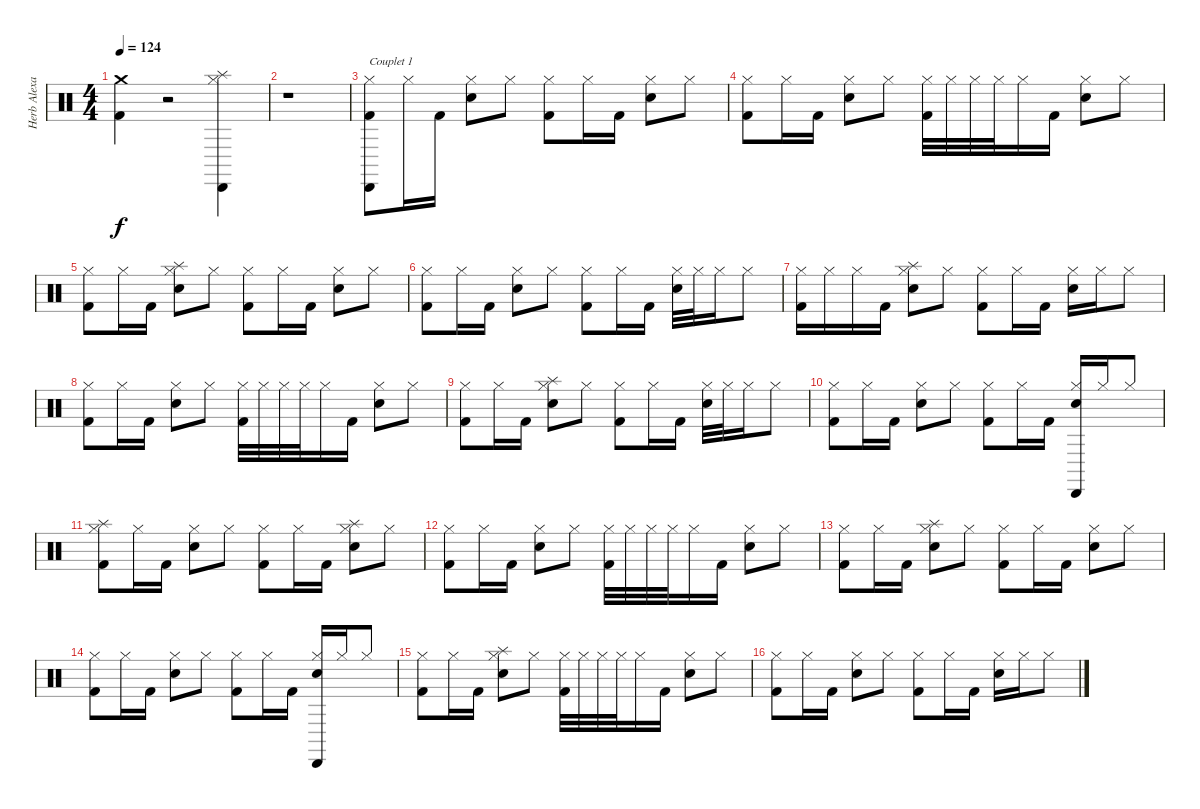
\track ("Herb Alexander" "Herb Alexa") {instrument percussion}
\staff {score}
\articulation defaults
\ts (4 4)
\tempo 124
\clef neutral
\ks c
("Crash medium (hit)" "Kick (hit) 2").4{dy f} r.2 ("Splash (hit)" "Cabasa (hit)" "Hi-Hat (closed)").4 |
r.1 |
("Cabasa (hit)" "Hi-Hat (closed)" "Kick (hit) 2").8{txt "Couplet 1"} "Hi-Hat (closed)".16 "Kick (hit) 2".16 ("Electric Snare (hit)" "Hi-Hat (closed)").8 "Hi-Hat (closed)".8 ("Hi-Hat (closed)" "Kick (hit) 2").8 "Hi-Hat (closed)".16 "Kick (hit) 2".16 ("Electric Snare (hit)" "Hi-Hat (closed)").8 "Hi-Hat (closed)".8 |
("Hi-Hat (closed)" "Kick (hit) 2").8 "Hi-Hat (closed)".16 "Kick (hit) 2".16 ("Electric Snare (hit)" "Hi-Hat (closed)").8 "Hi-Hat (closed)".8 ("Hi-Hat (closed)" "Kick (hit) 2").32 "Hi-Hat (closed)".32 "Hi-Hat (closed)".32 "Hi-Hat (closed)".32 "Hi-Hat (closed)".16 "Kick (hit) 2".16 ("Electric Snare (hit)" "Hi-Hat (closed)").8 "Hi-Hat (closed)".8 |
("Hi-Hat (closed)" "Kick (hit) 2").8 "Hi-Hat (closed)".16 "Kick (hit) 2".16 ("Splash (hit)" "Electric Snare (hit)" "Hi-Hat (closed)").8 "Hi-Hat (closed)".8 ("Hi-Hat (closed)" "Kick (hit) 2").8 "Hi-Hat (closed)".16 "Kick (hit) 2".16 ("Electric Snare (hit)" "Hi-Hat (closed)").8 "Hi-Hat (closed)".8 |
("Hi-Hat (closed)" "Kick (hit) 2").8 "Hi-Hat (closed)".16 "Kick (hit) 2".16 ("Electric Snare (hit)" "Hi-Hat (closed)").8 "Hi-Hat (closed)".8 ("Hi-Hat (closed)" "Kick (hit) 2").8 "Hi-Hat (closed)".16 "Kick (hit) 2".16 ("Electric Snare (hit)" "Hi-Hat (closed)").32 "Hi-Hat (closed)".32 "Hi-Hat (closed)".16 "Hi-Hat (closed)".8 |
("Hi-Hat (closed)" "Kick (hit) 2").16 "Hi-Hat (closed)".16 "Hi-Hat (closed)".16 "Kick (hit) 2".16 ("Splash (hit)" "Electric Snare (hit)" "Hi-Hat (closed)").8 "Hi-Hat (closed)".8 ("Hi-Hat (closed)" "Kick (hit) 2").8 "Hi-Hat (closed)".16 "Kick (hit) 2".16 ("Electric Snare (hit)" "Hi-Hat (closed)").16 "Hi-Hat (closed)".16 "Hi-Hat (closed)".8 |
("Hi-Hat (closed)" "Kick (hit) 2").8 "Hi-Hat (closed)".16 "Kick (hit) 2".16 ("Electric Snare (hit)" "Hi-Hat (closed)").8 "Hi-Hat (closed)".8 ("Hi-Hat (closed)" "Kick (hit) 2").32 "Hi-Hat (closed)".32 "Hi-Hat (closed)".32 "Hi-Hat (closed)".32 "Hi-Hat (closed)".16 "Kick (hit) 2".16 ("Electric Snare (hit)" "Hi-Hat (closed)").8 "Hi-Hat (closed)".8 |
("Hi-Hat (closed)" "Kick (hit) 2").8 "Hi-Hat (closed)".16 "Kick (hit) 2".16 ("Splash (hit)" "Electric Snare (hit)" "Hi-Hat (closed)").8 "Hi-Hat (closed)".8 ("Hi-Hat (closed)" "Kick (hit) 2").8 "Hi-Hat (closed)".16 "Kick (hit) 2".16 ("Electric Snare (hit)" "Hi-Hat (closed)").32 "Hi-Hat (closed)".32 "Hi-Hat (closed)".16 "Hi-Hat (closed)".8 |
("Hi-Hat (closed)" "Kick (hit) 2").8 "Hi-Hat (closed)".16 "Kick (hit) 2".16 ("Electric Snare (hit)" "Hi-Hat (closed)").8 "Hi-Hat (closed)".8 ("Hi-Hat (closed)" "Kick (hit) 2").8 "Hi-Hat (closed)".16 "Kick (hit) 2".16 ("Cabasa (hit)" "Electric Snare (hit)" "Hi-Hat (closed)").16 "Hi-Hat (closed)".16 "Hi-Hat (closed)".8 |
("Splash (hit)" "Hi-Hat (closed)" "Kick (hit) 2").8 "Hi-Hat (closed)".16 "Kick (hit) 2".16 ("Electric Snare (hit)" "Hi-Hat (closed)").8 "Hi-Hat (closed)".8 ("Hi-Hat (closed)" "Kick (hit) 2").8 "Hi-Hat (closed)".16 "Kick (hit) 2".16 ("Splash (hit)" "Electric Snare (hit)" "Hi-Hat (closed)").8 "Hi-Hat (closed)".8 |
("Hi-Hat (closed)" "Kick (hit) 2").8 "Hi-Hat (closed)".16 "Kick (hit) 2".16 ("Electric Snare (hit)" "Hi-Hat (closed)").8 "Hi-Hat (closed)".8 ("Hi-Hat (closed)" "Kick (hit) 2").32 "Hi-Hat (closed)".32 "Hi-Hat (closed)".32 "Hi-Hat (closed)".32 "Hi-Hat (closed)".16 "Kick (hit) 2".16 ("Electric Snare (hit)" "Hi-Hat (closed)").8 "Hi-Hat (closed)".8 |
("Hi-Hat (closed)" "Kick (hit) 2").8 "Hi-Hat (closed)".16 "Kick (hit) 2".16 ("Splash (hit)" "Electric Snare (hit)" "Hi-Hat (closed)").8 "Hi-Hat (closed)".8 ("Hi-Hat (closed)" "Kick (hit) 2").8 "Hi-Hat (closed)".16 "Kick (hit) 2".16 ("Electric Snare (hit)" "Hi-Hat (closed)").8 "Hi-Hat (closed)".8 |
("Hi-Hat (closed)" "Kick (hit) 2").8 "Hi-Hat (closed)".16 "Kick (hit) 2".16 ("Electric Snare (hit)" "Hi-Hat (closed)").8 "Hi-Hat (closed)".8 ("Hi-Hat (closed)" "Kick (hit) 2").8 "Hi-Hat (closed)".16 "Kick (hit) 2".16 ("Cabasa (hit)" "Electric Snare (hit)" "Hi-Hat (closed)").16 "Hi-Hat (closed)".16 "Hi-Hat (closed)".8 |
("Hi-Hat (closed)" "Kick (hit) 2").8 "Hi-Hat (closed)".16 "Kick (hit) 2".16 ("Splash (hit)" "Electric Snare (hit)" "Hi-Hat (closed)").8 "Hi-Hat (closed)".8 ("Hi-Hat (closed)" "Kick (hit) 2").32 "Hi-Hat (closed)".32 "Hi-Hat (closed)".32 "Hi-Hat (closed)".32 "Hi-Hat (closed)".16 "Kick (hit) 2".16 ("Electric Snare (hit)" "Hi-Hat (closed)").8 "Hi-Hat (closed)".8 |
("Hi-Hat (closed)" "Kick (hit) 2").8 "Hi-Hat (closed)".16 "Kick (hit) 2".16 ("Electric Snare (hit)" "Hi-Hat (closed)").8 "Hi-Hat (closed)".8 ("Hi-Hat (closed)" "Kick (hit) 2").8 "Hi-Hat (closed)".16 "Kick (hit) 2".16 ("Electric Snare (hit)" "Hi-Hat (closed)").16 "Hi-Hat (closed)".16 "Hi-Hat (closed)".8
